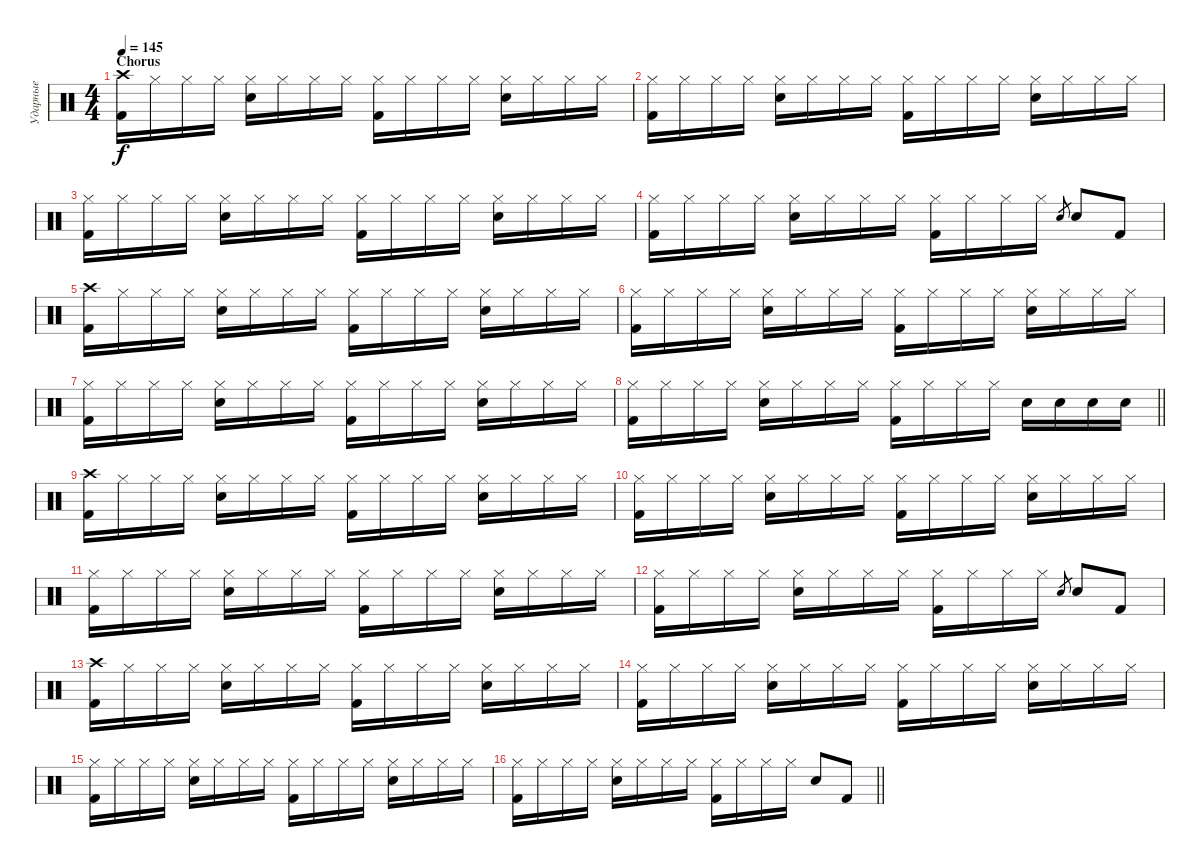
\track ("Ударные" "Ударные") {instrument percussion}
\staff {score}
\articulation defaults
\ts (4 4)
\section ("" "Сhorus")
\tempo 145
\clef neutral
\ks c
("Crash high (hit)" "Kick (hit) 2").16{dy f} "Hi-Hat (closed)".16 "Hi-Hat (closed)".16 "Hi-Hat (closed)".16 ("Hi-Hat (closed)" "Electric Snare (hit)").16 "Hi-Hat (closed)".16 "Hi-Hat (closed)".16 "Hi-Hat (closed)".16 ("Hi-Hat (closed)" "Kick (hit) 2").16 "Hi-Hat (closed)".16 "Hi-Hat (closed)".16 "Hi-Hat (closed)".16 ("Hi-Hat (closed)" "Electric Snare (hit)").16 "Hi-Hat (closed)".16 "Hi-Hat (closed)".16 "Hi-Hat (closed)".16 |
("Hi-Hat (closed)" "Kick (hit) 2").16 "Hi-Hat (closed)".16 "Hi-Hat (closed)".16 "Hi-Hat (closed)".16 ("Hi-Hat (closed)" "Electric Snare (hit)").16 "Hi-Hat (closed)".16 "Hi-Hat (closed)".16 "Hi-Hat (closed)".16 ("Hi-Hat (closed)" "Kick (hit) 2").16 "Hi-Hat (closed)".16 "Hi-Hat (closed)".16 "Hi-Hat (closed)".16 ("Hi-Hat (closed)" "Electric Snare (hit)").16 "Hi-Hat (closed)".16 "Hi-Hat (closed)".16 "Hi-Hat (closed)".16 |
("Hi-Hat (closed)" "Kick (hit) 2").16 "Hi-Hat (closed)".16 "Hi-Hat (closed)".16 "Hi-Hat (closed)".16 ("Hi-Hat (closed)" "Electric Snare (hit)").16 "Hi-Hat (closed)".16 "Hi-Hat (closed)".16 "Hi-Hat (closed)".16 ("Hi-Hat (closed)" "Kick (hit) 2").16 "Hi-Hat (closed)".16 "Hi-Hat (closed)".16 "Hi-Hat (closed)".16 ("Hi-Hat (closed)" "Electric Snare (hit)").16 "Hi-Hat (closed)".16 "Hi-Hat (closed)".16 "Hi-Hat (closed)".16 |
("Hi-Hat (closed)" "Kick (hit) 2").16 "Hi-Hat (closed)".16 "Hi-Hat (closed)".16 "Hi-Hat (closed)".16 ("Hi-Hat (closed)" "Electric Snare (hit)").16 "Hi-Hat (closed)".16 "Hi-Hat (closed)".16 "Hi-Hat (closed)".16 ("Hi-Hat (closed)" "Kick (hit) 2").16 "Hi-Hat (closed)".16 "Hi-Hat (closed)".16 "Hi-Hat (closed)".16 "Electric Snare (hit)".8{gr} "Electric Snare (hit)".8 "Kick (hit) 2".8 |
("Crash high (hit)" "Kick (hit) 2").16 "Hi-Hat (closed)".16 "Hi-Hat (closed)".16 "Hi-Hat (closed)".16 ("Hi-Hat (closed)" "Electric Snare (hit)").16 "Hi-Hat (closed)".16 "Hi-Hat (closed)".16 "Hi-Hat (closed)".16 ("Hi-Hat (closed)" "Kick (hit) 2").16 "Hi-Hat (closed)".16 "Hi-Hat (closed)".16 "Hi-Hat (closed)".16 ("Hi-Hat (closed)" "Electric Snare (hit)").16 "Hi-Hat (closed)".16 "Hi-Hat (closed)".16 "Hi-Hat (closed)".16 |
("Hi-Hat (closed)" "Kick (hit) 2").16 "Hi-Hat (closed)".16 "Hi-Hat (closed)".16 "Hi-Hat (closed)".16 ("Hi-Hat (closed)" "Electric Snare (hit)").16 "Hi-Hat (closed)".16 "Hi-Hat (closed)".16 "Hi-Hat (closed)".16 ("Hi-Hat (closed)" "Kick (hit) 2").16 "Hi-Hat (closed)".16 "Hi-Hat (closed)".16 "Hi-Hat (closed)".16 ("Hi-Hat (closed)" "Electric Snare (hit)").16 "Hi-Hat (closed)".16 "Hi-Hat (closed)".16 "Hi-Hat (closed)".16 |
("Hi-Hat (closed)" "Kick (hit) 2").16 "Hi-Hat (closed)".16 "Hi-Hat (closed)".16 "Hi-Hat (closed)".16 ("Hi-Hat (closed)" "Electric Snare (hit)").16 "Hi-Hat (closed)".16 "Hi-Hat (closed)".16 "Hi-Hat (closed)".16 ("Hi-Hat (closed)" "Kick (hit) 2").16 "Hi-Hat (closed)".16 "Hi-Hat (closed)".16 "Hi-Hat (closed)".16 ("Hi-Hat (closed)" "Electric Snare (hit)").16 "Hi-Hat (closed)".16 "Hi-Hat (closed)".16 "Hi-Hat (closed)".16 |
\barLineRight lightlight
("Hi-Hat (closed)" "Kick (hit) 2").16 "Hi-Hat (closed)".16 "Hi-Hat (closed)".16 "Hi-Hat (closed)".16 ("Hi-Hat (closed)" "Electric Snare (hit)").16 "Hi-Hat (closed)".16 "Hi-Hat (closed)".16 "Hi-Hat (closed)".16 ("Hi-Hat (closed)" "Kick (hit) 2").16 "Hi-Hat (closed)".16 "Hi-Hat (closed)".16 "Hi-Hat (closed)".16 "Electric Snare (hit)".16 "Electric Snare (hit)".16 "Electric Snare (hit)".16 "Electric Snare (hit)".16 |
("Crash high (hit)" "Kick (hit) 2").16 "Hi-Hat (closed)".16 "Hi-Hat (closed)".16 "Hi-Hat (closed)".16 ("Hi-Hat (closed)" "Electric Snare (hit)").16 "Hi-Hat (closed)".16 "Hi-Hat (closed)".16 "Hi-Hat (closed)".16 ("Hi-Hat (closed)" "Kick (hit) 2").16 "Hi-Hat (closed)".16 "Hi-Hat (closed)".16 "Hi-Hat (closed)".16 ("Hi-Hat (closed)" "Electric Snare (hit)").16 "Hi-Hat (closed)".16 "Hi-Hat (closed)".16 "Hi-Hat (closed)".16 |
("Hi-Hat (closed)" "Kick (hit) 2").16 "Hi-Hat (closed)".16 "Hi-Hat (closed)".16 "Hi-Hat (closed)".16 ("Hi-Hat (closed)" "Electric Snare (hit)").16 "Hi-Hat (closed)".16 "Hi-Hat (closed)".16 "Hi-Hat (closed)".16 ("Hi-Hat (closed)" "Kick (hit) 2").16 "Hi-Hat (closed)".16 "Hi-Hat (closed)".16 "Hi-Hat (closed)".16 ("Hi-Hat (closed)" "Electric Snare (hit)").16 "Hi-Hat (closed)".16 "Hi-Hat (closed)".16 "Hi-Hat (closed)".16 |
("Hi-Hat (closed)" "Kick (hit) 2").16 "Hi-Hat (closed)".16 "Hi-Hat (closed)".16 "Hi-Hat (closed)".16 ("Hi-Hat (closed)" "Electric Snare (hit)").16 "Hi-Hat (closed)".16 "Hi-Hat (closed)".16 "Hi-Hat (closed)".16 ("Hi-Hat (closed)" "Kick (hit) 2").16 "Hi-Hat (closed)".16 "Hi-Hat (closed)".16 "Hi-Hat (closed)".16 ("Hi-Hat (closed)" "Electric Snare (hit)").16 "Hi-Hat (closed)".16 "Hi-Hat (closed)".16 "Hi-Hat (closed)".16 |
("Hi-Hat (closed)" "Kick (hit) 2").16 "Hi-Hat (closed)".16 "Hi-Hat (closed)".16 "Hi-Hat (closed)".16 ("Hi-Hat (closed)" "Electric Snare (hit)").16 "Hi-Hat (closed)".16 "Hi-Hat (closed)".16 "Hi-Hat (closed)".16 ("Hi-Hat (closed)" "Kick (hit) 2").16 "Hi-Hat (closed)".16 "Hi-Hat (closed)".16 "Hi-Hat (closed)".16 "Electric Snare (hit)".8{gr} "Electric Snare (hit)".8 "Kick (hit) 2".8 |
("Crash high (hit)" "Kick (hit) 2").16 "Hi-Hat (closed)".16 "Hi-Hat (closed)".16 "Hi-Hat (closed)".16 ("Hi-Hat (closed)" "Electric Snare (hit)").16 "Hi-Hat (closed)".16 "Hi-Hat (closed)".16 "Hi-Hat (closed)".16 ("Hi-Hat (closed)" "Kick (hit) 2").16 "Hi-Hat (closed)".16 "Hi-Hat (closed)".16 "Hi-Hat (closed)".16 ("Hi-Hat (closed)" "Electric Snare (hit)").16 "Hi-Hat (closed)".16 "Hi-Hat (closed)".16 "Hi-Hat (closed)".16 |
("Hi-Hat (closed)" "Kick (hit) 2").16 "Hi-Hat (closed)".16 "Hi-Hat (closed)".16 "Hi-Hat (closed)".16 ("Hi-Hat (closed)" "Electric Snare (hit)").16 "Hi-Hat (closed)".16 "Hi-Hat (closed)".16 "Hi-Hat (closed)".16 ("Hi-Hat (closed)" "Kick (hit) 2").16 "Hi-Hat (closed)".16 "Hi-Hat (closed)".16 "Hi-Hat (closed)".16 ("Hi-Hat (closed)" "Electric Snare (hit)").16 "Hi-Hat (closed)".16 "Hi-Hat (closed)".16 "Hi-Hat (closed)".16 |
("Hi-Hat (closed)" "Kick (hit) 2").16 "Hi-Hat (closed)".16 "Hi-Hat (closed)".16 "Hi-Hat (closed)".16 ("Hi-Hat (closed)" "Electric Snare (hit)").16 "Hi-Hat (closed)".16 "Hi-Hat (closed)".16 "Hi-Hat (closed)".16 ("Hi-Hat (closed)" "Kick (hit) 2").16 "Hi-Hat (closed)".16 "Hi-Hat (closed)".16 "Hi-Hat (closed)".16 ("Hi-Hat (closed)" "Electric Snare (hit)").16 "Hi-Hat (closed)".16 "Hi-Hat (closed)".16 "Hi-Hat (closed)".16 |
\barLineRight lightlight
("Hi-Hat (closed)" "Kick (hit) 2").16 "Hi-Hat (closed)".16 "Hi-Hat (closed)".16 "Hi-Hat (closed)".16 ("Hi-Hat (closed)" "Electric Snare (hit)").16 "Hi-Hat (closed)".16 "Hi-Hat (closed)".16 "Hi-Hat (closed)".16 ("Hi-Hat (closed)" "Kick (hit) 2").16 "Hi-Hat (closed)".16 "Hi-Hat (closed)".16 "Hi-Hat (closed)".16 "Electric Snare (hit)".8 "Kick (hit) 2".8
